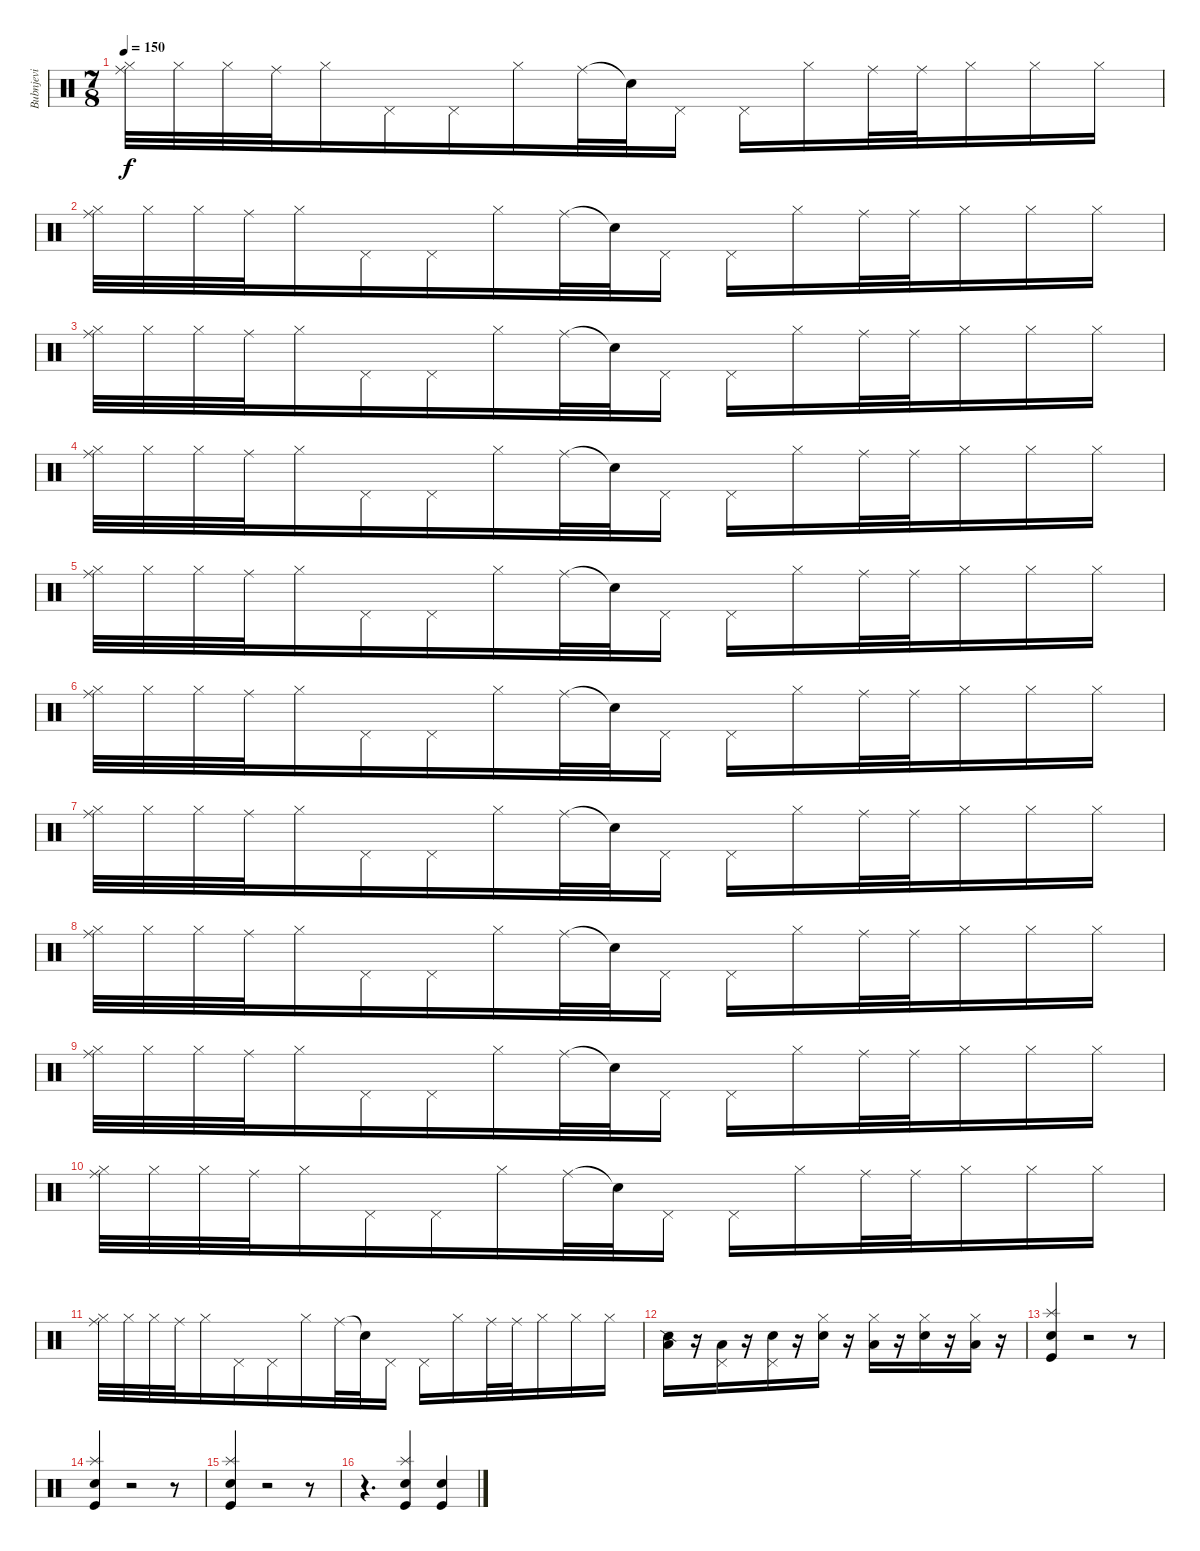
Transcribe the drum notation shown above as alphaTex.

\track ("Bubnjevi" "Bubnjevi") {instrument percussion}
\staff {score}
\articulation defaults
\ts (7 8)
\tempo 150
\clef neutral
\ks c
("Hi-Hat (closed)" "Ride (middle)").32{dy f} "Hi-Hat (closed)".32 "Hi-Hat (closed)".32 "Ride (middle)".32 "Hi-Hat (closed)".16 "Pedal Hi-Hat (hit)".16 "Pedal Hi-Hat (hit)".16 "Hi-Hat (closed)".16 "Ride (middle)".32 "Snare (hit)"{t}.32 "Pedal Hi-Hat (hit)".16 "Pedal Hi-Hat (hit)".16 "Hi-Hat (closed)".16 "Ride (middle)".32 "Ride (middle)".32 "Hi-Hat (closed)".16 "Hi-Hat (closed)".16 "Hi-Hat (closed)".16 |
("Hi-Hat (closed)" "Ride (middle)").32 "Hi-Hat (closed)".32 "Hi-Hat (closed)".32 "Ride (middle)".32 "Hi-Hat (closed)".16 "Pedal Hi-Hat (hit)".16 "Pedal Hi-Hat (hit)".16 "Hi-Hat (closed)".16 "Ride (middle)".32 "Snare (hit)"{t}.32 "Pedal Hi-Hat (hit)".16 "Pedal Hi-Hat (hit)".16 "Hi-Hat (closed)".16 "Ride (middle)".32 "Ride (middle)".32 "Hi-Hat (closed)".16 "Hi-Hat (closed)".16 "Hi-Hat (closed)".16 |
("Hi-Hat (closed)" "Ride (middle)").32 "Hi-Hat (closed)".32 "Hi-Hat (closed)".32 "Ride (middle)".32 "Hi-Hat (closed)".16 "Pedal Hi-Hat (hit)".16 "Pedal Hi-Hat (hit)".16 "Hi-Hat (closed)".16 "Ride (middle)".32 "Snare (hit)"{t}.32 "Pedal Hi-Hat (hit)".16 "Pedal Hi-Hat (hit)".16 "Hi-Hat (closed)".16 "Ride (middle)".32 "Ride (middle)".32 "Hi-Hat (closed)".16 "Hi-Hat (closed)".16 "Hi-Hat (closed)".16 |
("Hi-Hat (closed)" "Ride (middle)").32 "Hi-Hat (closed)".32 "Hi-Hat (closed)".32 "Ride (middle)".32 "Hi-Hat (closed)".16 "Pedal Hi-Hat (hit)".16 "Pedal Hi-Hat (hit)".16 "Hi-Hat (closed)".16 "Ride (middle)".32 "Snare (hit)"{t}.32 "Pedal Hi-Hat (hit)".16 "Pedal Hi-Hat (hit)".16 "Hi-Hat (closed)".16 "Ride (middle)".32 "Ride (middle)".32 "Hi-Hat (closed)".16 "Hi-Hat (closed)".16 "Hi-Hat (closed)".16 |
("Hi-Hat (closed)" "Ride (middle)").32 "Hi-Hat (closed)".32 "Hi-Hat (closed)".32 "Ride (middle)".32 "Hi-Hat (closed)".16 "Pedal Hi-Hat (hit)".16 "Pedal Hi-Hat (hit)".16 "Hi-Hat (closed)".16 "Ride (middle)".32 "Snare (hit)"{t}.32 "Pedal Hi-Hat (hit)".16 "Pedal Hi-Hat (hit)".16 "Hi-Hat (closed)".16 "Ride (middle)".32 "Ride (middle)".32 "Hi-Hat (closed)".16 "Hi-Hat (closed)".16 "Hi-Hat (closed)".16 |
("Hi-Hat (closed)" "Ride (middle)").32 "Hi-Hat (closed)".32 "Hi-Hat (closed)".32 "Ride (middle)".32 "Hi-Hat (closed)".16 "Pedal Hi-Hat (hit)".16 "Pedal Hi-Hat (hit)".16 "Hi-Hat (closed)".16 "Ride (middle)".32 "Snare (hit)"{t}.32 "Pedal Hi-Hat (hit)".16 "Pedal Hi-Hat (hit)".16 "Hi-Hat (closed)".16 "Ride (middle)".32 "Ride (middle)".32 "Hi-Hat (closed)".16 "Hi-Hat (closed)".16 "Hi-Hat (closed)".16 |
("Hi-Hat (closed)" "Ride (middle)").32 "Hi-Hat (closed)".32 "Hi-Hat (closed)".32 "Ride (middle)".32 "Hi-Hat (closed)".16 "Pedal Hi-Hat (hit)".16 "Pedal Hi-Hat (hit)".16 "Hi-Hat (closed)".16 "Ride (middle)".32 "Snare (hit)"{t}.32 "Pedal Hi-Hat (hit)".16 "Pedal Hi-Hat (hit)".16 "Hi-Hat (closed)".16 "Ride (middle)".32 "Ride (middle)".32 "Hi-Hat (closed)".16 "Hi-Hat (closed)".16 "Hi-Hat (closed)".16 |
("Hi-Hat (closed)" "Ride (middle)").32 "Hi-Hat (closed)".32 "Hi-Hat (closed)".32 "Ride (middle)".32 "Hi-Hat (closed)".16 "Pedal Hi-Hat (hit)".16 "Pedal Hi-Hat (hit)".16 "Hi-Hat (closed)".16 "Ride (middle)".32 "Snare (hit)"{t}.32 "Pedal Hi-Hat (hit)".16 "Pedal Hi-Hat (hit)".16 "Hi-Hat (closed)".16 "Ride (middle)".32 "Ride (middle)".32 "Hi-Hat (closed)".16 "Hi-Hat (closed)".16 "Hi-Hat (closed)".16 |
("Hi-Hat (closed)" "Ride (middle)").32 "Hi-Hat (closed)".32 "Hi-Hat (closed)".32 "Ride (middle)".32 "Hi-Hat (closed)".16 "Pedal Hi-Hat (hit)".16 "Pedal Hi-Hat (hit)".16 "Hi-Hat (closed)".16 "Ride (middle)".32 "Snare (hit)"{t}.32 "Pedal Hi-Hat (hit)".16 "Pedal Hi-Hat (hit)".16 "Hi-Hat (closed)".16 "Ride (middle)".32 "Ride (middle)".32 "Hi-Hat (closed)".16 "Hi-Hat (closed)".16 "Hi-Hat (closed)".16 |
("Hi-Hat (closed)" "Ride (middle)").32 "Hi-Hat (closed)".32 "Hi-Hat (closed)".32 "Ride (middle)".32 "Hi-Hat (closed)".16 "Pedal Hi-Hat (hit)".16 "Pedal Hi-Hat (hit)".16 "Hi-Hat (closed)".16 "Ride (middle)".32 "Snare (hit)"{t}.32 "Pedal Hi-Hat (hit)".16 "Pedal Hi-Hat (hit)".16 "Hi-Hat (closed)".16 "Ride (middle)".32 "Ride (middle)".32 "Hi-Hat (closed)".16 "Hi-Hat (closed)".16 "Hi-Hat (closed)".16 |
("Hi-Hat (closed)" "Ride (middle)").32 "Hi-Hat (closed)".32 "Hi-Hat (closed)".32 "Ride (middle)".32 "Hi-Hat (closed)".16 "Pedal Hi-Hat (hit)".16 "Pedal Hi-Hat (hit)".16 "Hi-Hat (closed)".16 "Ride (middle)".32 "Snare (hit)"{t}.32 "Pedal Hi-Hat (hit)".16 "Pedal Hi-Hat (hit)".16 "Hi-Hat (closed)".16 "Ride (middle)".32 "Ride (middle)".32 "Hi-Hat (closed)".16 "Hi-Hat (closed)".16 "Hi-Hat (closed)".16 |
("Low Tom (hit)" "Snare (side stick) 2").16 r.16 ("Pedal Hi-Hat (hit)" "Low Tom (hit)").16 r.16 ("Pedal Hi-Hat (hit)" "Snare (hit) 2").16 r.16 ("Hi-Hat (closed)" "Snare (hit) 2").16 r.16 ("Hi-Hat (closed)" "Low Tom (hit)").16 r.16 ("Hi-Hat (closed)" "Snare (hit) 2").16 r.16 ("Hi-Hat (closed)" "Low Tom (hit)").16 r.16 |
("Splash (hit)" "Snare (hit) 2" "Kick (hit)").4 r.2 r.8 |
("Splash (hit)" "Snare (hit) 2" "Kick (hit)").4 r.2 r.8 |
("Splash (hit)" "Snare (hit) 2" "Kick (hit)").4 r.2 r.8 |
r.4{d} ("Splash (hit)" "Snare (hit) 2" "Kick (hit)").4 ("Snare (hit) 2" "Kick (hit)").4
